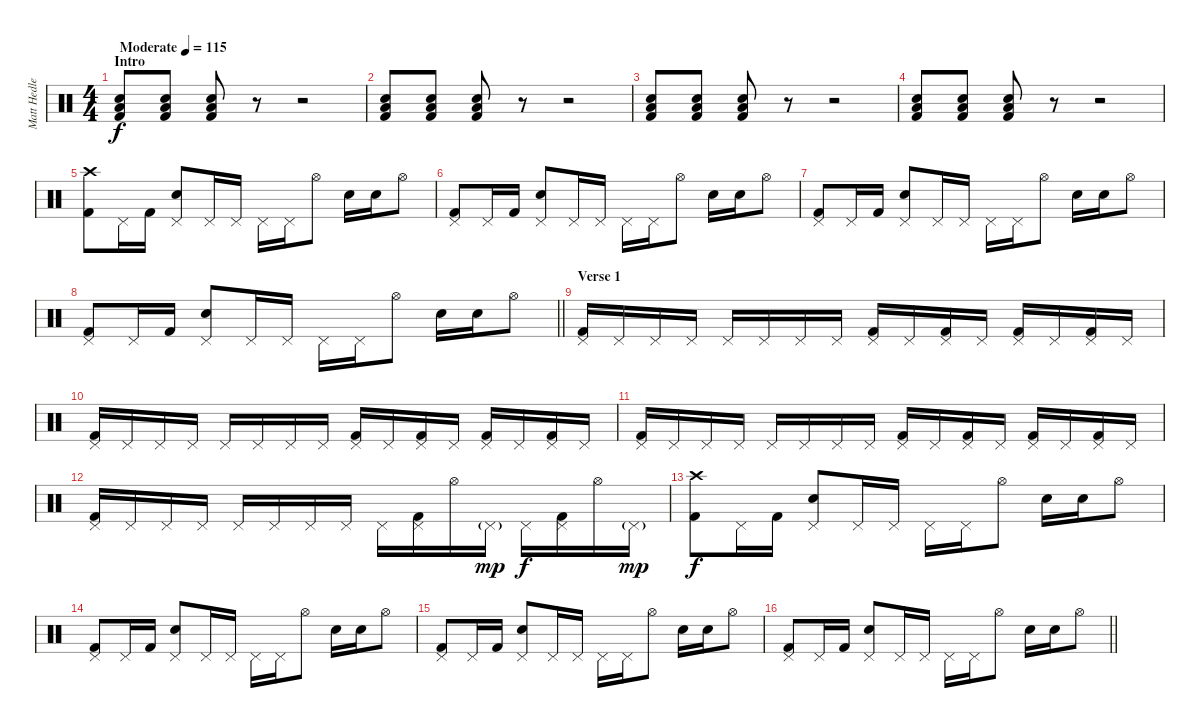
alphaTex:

\track ("Matt Hedlers" "Matt Hedle") {instrument percussion}
\staff {score}
\articulation defaults
\ts (4 4)
\section ("" "Intro")
\tempo (115 "Moderate")
\clef neutral
\ks c
("Low Tom (hit)" "Snare (hit) 2" "Kick (hit) 2").8{dy f} ("Low Tom (hit)" "Snare (hit) 2" "Kick (hit) 2").8 ("Low Tom (hit)" "Snare (hit) 2" "Kick (hit) 2").8 r.8 r.2 |
("Low Tom (hit)" "Snare (hit) 2" "Kick (hit) 2").8 ("Low Tom (hit)" "Snare (hit) 2" "Kick (hit) 2").8 ("Low Tom (hit)" "Snare (hit) 2" "Kick (hit) 2").8 r.8 r.2 |
("Low Tom (hit)" "Snare (hit) 2" "Kick (hit) 2").8 ("Low Tom (hit)" "Snare (hit) 2" "Kick (hit) 2").8 ("Low Tom (hit)" "Snare (hit) 2" "Kick (hit) 2").8 r.8 r.2 |
("Low Tom (hit)" "Snare (hit) 2" "Kick (hit) 2").8 ("Low Tom (hit)" "Snare (hit) 2" "Kick (hit) 2").8 ("Low Tom (hit)" "Snare (hit) 2" "Kick (hit) 2").8 r.8 r.2 |
("Crash high (hit)" "Kick (hit) 2").8 "Pedal Hi-Hat (hit)".16 "Kick (hit) 2".16 ("Pedal Hi-Hat (hit)" "Snare (hit) 2").8 "Pedal Hi-Hat (hit)".16 "Pedal Hi-Hat (hit)".16 "Pedal Hi-Hat (hit)".16 "Pedal Hi-Hat (hit)".16 "Hi-Hat (open)".8 "Snare (hit) 2".16 "Snare (hit) 2".16 "Hi-Hat (open)".8 |
("Pedal Hi-Hat (hit)" "Kick (hit) 2").8 "Pedal Hi-Hat (hit)".16 "Kick (hit) 2".16 ("Pedal Hi-Hat (hit)" "Snare (hit) 2").8 "Pedal Hi-Hat (hit)".16 "Pedal Hi-Hat (hit)".16 "Pedal Hi-Hat (hit)".16 "Pedal Hi-Hat (hit)".16 "Hi-Hat (open)".8 "Snare (hit) 2".16 "Snare (hit) 2".16 "Hi-Hat (open)".8 |
("Pedal Hi-Hat (hit)" "Kick (hit) 2").8 "Pedal Hi-Hat (hit)".16 "Kick (hit) 2".16 ("Pedal Hi-Hat (hit)" "Snare (hit) 2").8 "Pedal Hi-Hat (hit)".16 "Pedal Hi-Hat (hit)".16 "Pedal Hi-Hat (hit)".16 "Pedal Hi-Hat (hit)".16 "Hi-Hat (open)".8 "Snare (hit) 2".16 "Snare (hit) 2".16 "Hi-Hat (open)".8 |
\barLineRight lightlight
("Pedal Hi-Hat (hit)" "Kick (hit) 2").8 "Pedal Hi-Hat (hit)".16 "Kick (hit) 2".16 ("Pedal Hi-Hat (hit)" "Snare (hit) 2").8 "Pedal Hi-Hat (hit)".16 "Pedal Hi-Hat (hit)".16 "Pedal Hi-Hat (hit)".16 "Pedal Hi-Hat (hit)".16 "Hi-Hat (open)".8 "Snare (hit) 2".16 "Snare (hit) 2".16 "Hi-Hat (open)".8 |
\section ("" "Verse 1")
("Pedal Hi-Hat (hit)" "Kick (hit) 2").16 "Pedal Hi-Hat (hit)".16 "Pedal Hi-Hat (hit)".16 "Pedal Hi-Hat (hit)".16 "Pedal Hi-Hat (hit)".16 "Pedal Hi-Hat (hit)".16 "Pedal Hi-Hat (hit)".16 "Pedal Hi-Hat (hit)".16 ("Pedal Hi-Hat (hit)" "Kick (hit) 2").16 "Pedal Hi-Hat (hit)".16 ("Pedal Hi-Hat (hit)" "Kick (hit) 2").16 "Pedal Hi-Hat (hit)".16 ("Pedal Hi-Hat (hit)" "Kick (hit) 2").16 "Pedal Hi-Hat (hit)".16 ("Pedal Hi-Hat (hit)" "Kick (hit) 2").16 "Pedal Hi-Hat (hit)".16 |
("Pedal Hi-Hat (hit)" "Kick (hit) 2").16 "Pedal Hi-Hat (hit)".16 "Pedal Hi-Hat (hit)".16 "Pedal Hi-Hat (hit)".16 "Pedal Hi-Hat (hit)".16 "Pedal Hi-Hat (hit)".16 "Pedal Hi-Hat (hit)".16 "Pedal Hi-Hat (hit)".16 ("Pedal Hi-Hat (hit)" "Kick (hit) 2").16 "Pedal Hi-Hat (hit)".16 ("Pedal Hi-Hat (hit)" "Kick (hit) 2").16 "Pedal Hi-Hat (hit)".16 ("Pedal Hi-Hat (hit)" "Kick (hit) 2").16 "Pedal Hi-Hat (hit)".16 ("Pedal Hi-Hat (hit)" "Kick (hit) 2").16 "Pedal Hi-Hat (hit)".16 |
("Pedal Hi-Hat (hit)" "Kick (hit) 2").16 "Pedal Hi-Hat (hit)".16 "Pedal Hi-Hat (hit)".16 "Pedal Hi-Hat (hit)".16 "Pedal Hi-Hat (hit)".16 "Pedal Hi-Hat (hit)".16 "Pedal Hi-Hat (hit)".16 "Pedal Hi-Hat (hit)".16 ("Pedal Hi-Hat (hit)" "Kick (hit) 2").16 "Pedal Hi-Hat (hit)".16 ("Pedal Hi-Hat (hit)" "Kick (hit) 2").16 "Pedal Hi-Hat (hit)".16 ("Pedal Hi-Hat (hit)" "Kick (hit) 2").16 "Pedal Hi-Hat (hit)".16 ("Pedal Hi-Hat (hit)" "Kick (hit) 2").16 "Pedal Hi-Hat (hit)".16 |
("Pedal Hi-Hat (hit)" "Kick (hit) 2").16 "Pedal Hi-Hat (hit)".16 "Pedal Hi-Hat (hit)".16 "Pedal Hi-Hat (hit)".16 "Pedal Hi-Hat (hit)".16 "Pedal Hi-Hat (hit)".16 "Pedal Hi-Hat (hit)".16 "Pedal Hi-Hat (hit)".16 "Pedal Hi-Hat (hit)".16 ("Pedal Hi-Hat (hit)" "Kick (hit) 2").16 "Hi-Hat (open)".16 "Pedal Hi-Hat (hit)"{g}.16{dy mp} "Pedal Hi-Hat (hit)".16{dy f} ("Pedal Hi-Hat (hit)" "Kick (hit) 2").16 "Hi-Hat (open)".16 "Pedal Hi-Hat (hit)"{g}.16{dy mp} |
("Crash high (hit)" "Kick (hit) 2").8{dy f} "Pedal Hi-Hat (hit)".16 "Kick (hit) 2".16 ("Pedal Hi-Hat (hit)" "Snare (hit) 2").8 "Pedal Hi-Hat (hit)".16 "Pedal Hi-Hat (hit)".16 "Pedal Hi-Hat (hit)".16 "Pedal Hi-Hat (hit)".16 "Hi-Hat (open)".8 "Snare (hit) 2".16 "Snare (hit) 2".16 "Hi-Hat (open)".8 |
("Pedal Hi-Hat (hit)" "Kick (hit) 2").8 "Pedal Hi-Hat (hit)".16 "Kick (hit) 2".16 ("Pedal Hi-Hat (hit)" "Snare (hit) 2").8 "Pedal Hi-Hat (hit)".16 "Pedal Hi-Hat (hit)".16 "Pedal Hi-Hat (hit)".16 "Pedal Hi-Hat (hit)".16 "Hi-Hat (open)".8 "Snare (hit) 2".16 "Snare (hit) 2".16 "Hi-Hat (open)".8 |
("Pedal Hi-Hat (hit)" "Kick (hit) 2").8 "Pedal Hi-Hat (hit)".16 "Kick (hit) 2".16 ("Pedal Hi-Hat (hit)" "Snare (hit) 2").8 "Pedal Hi-Hat (hit)".16 "Pedal Hi-Hat (hit)".16 "Pedal Hi-Hat (hit)".16 "Pedal Hi-Hat (hit)".16 "Hi-Hat (open)".8 "Snare (hit) 2".16 "Snare (hit) 2".16 "Hi-Hat (open)".8 |
\barLineRight lightlight
("Pedal Hi-Hat (hit)" "Kick (hit) 2").8 "Pedal Hi-Hat (hit)".16 "Kick (hit) 2".16 ("Pedal Hi-Hat (hit)" "Snare (hit) 2").8 "Pedal Hi-Hat (hit)".16 "Pedal Hi-Hat (hit)".16 "Pedal Hi-Hat (hit)".16 "Pedal Hi-Hat (hit)".16 "Hi-Hat (open)".8 "Snare (hit) 2".16 "Snare (hit) 2".16 "Hi-Hat (open)".8
